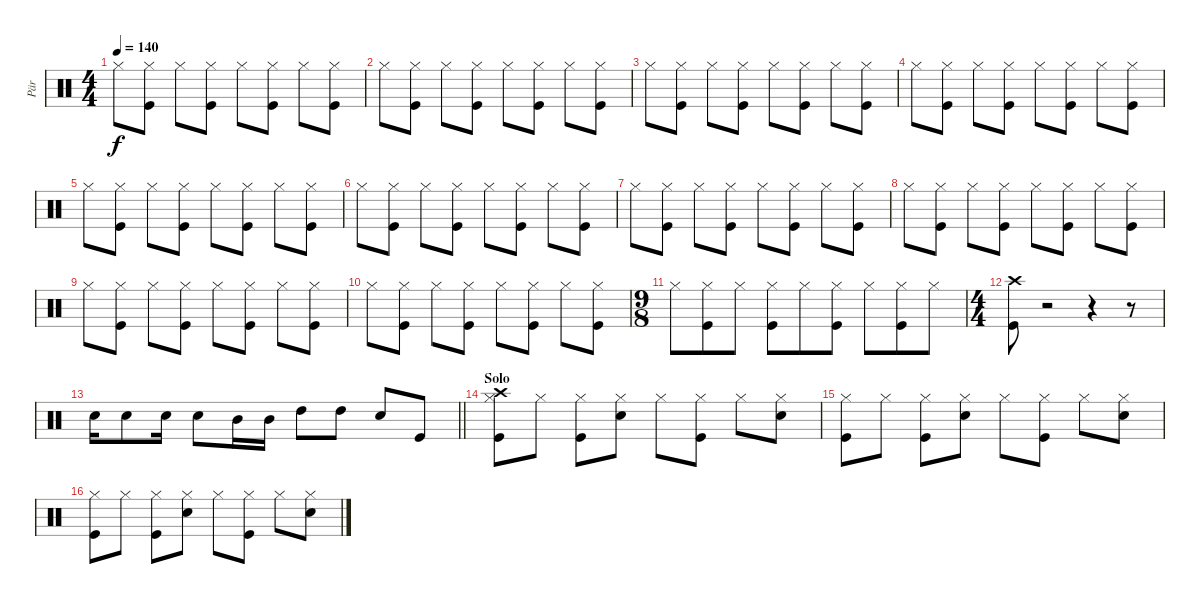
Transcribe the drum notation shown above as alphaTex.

\track ("Pär" "Pär") {instrument percussion}
\staff {score}
\articulation defaults
\ts (4 4)
\tempo 140
\clef neutral
\ks c "Hi-Hat (closed)".8{dy f}
("Hi-Hat (closed)" "Kick (hit)").8 "Hi-Hat (closed)".8 ("Hi-Hat (closed)" "Kick (hit)").8 "Hi-Hat (closed)".8 ("Hi-Hat (closed)" "Kick (hit)").8 "Hi-Hat (closed)".8 ("Hi-Hat (closed)" "Kick (hit)").8 |
"Hi-Hat (closed)".8 ("Hi-Hat (closed)" "Kick (hit)").8 "Hi-Hat (closed)".8 ("Hi-Hat (closed)" "Kick (hit)").8 "Hi-Hat (closed)".8 ("Hi-Hat (closed)" "Kick (hit)").8 "Hi-Hat (closed)".8 ("Hi-Hat (closed)" "Kick (hit)").8 |
"Hi-Hat (closed)".8 ("Hi-Hat (closed)" "Kick (hit)").8 "Hi-Hat (closed)".8 ("Hi-Hat (closed)" "Kick (hit)").8 "Hi-Hat (closed)".8 ("Hi-Hat (closed)" "Kick (hit)").8 "Hi-Hat (closed)".8 ("Hi-Hat (closed)" "Kick (hit)").8 |
"Hi-Hat (closed)".8 ("Hi-Hat (closed)" "Kick (hit)").8 "Hi-Hat (closed)".8 ("Hi-Hat (closed)" "Kick (hit)").8 "Hi-Hat (closed)".8 ("Hi-Hat (closed)" "Kick (hit)").8 "Hi-Hat (closed)".8 ("Hi-Hat (closed)" "Kick (hit)").8 |
"Hi-Hat (closed)".8 ("Hi-Hat (closed)" "Kick (hit)").8 "Hi-Hat (closed)".8 ("Hi-Hat (closed)" "Kick (hit)").8 "Hi-Hat (closed)".8 ("Hi-Hat (closed)" "Kick (hit)").8 "Hi-Hat (closed)".8 ("Hi-Hat (closed)" "Kick (hit)").8 |
"Hi-Hat (closed)".8 ("Hi-Hat (closed)" "Kick (hit)").8 "Hi-Hat (closed)".8 ("Hi-Hat (closed)" "Kick (hit)").8 "Hi-Hat (closed)".8 ("Hi-Hat (closed)" "Kick (hit)").8 "Hi-Hat (closed)".8 ("Hi-Hat (closed)" "Kick (hit)").8 |
"Hi-Hat (closed)".8 ("Hi-Hat (closed)" "Kick (hit)").8 "Hi-Hat (closed)".8 ("Hi-Hat (closed)" "Kick (hit)").8 "Hi-Hat (closed)".8 ("Hi-Hat (closed)" "Kick (hit)").8 "Hi-Hat (closed)".8 ("Hi-Hat (closed)" "Kick (hit)").8 |
"Hi-Hat (closed)".8 ("Hi-Hat (closed)" "Kick (hit)").8 "Hi-Hat (closed)".8 ("Hi-Hat (closed)" "Kick (hit)").8 "Hi-Hat (closed)".8 ("Hi-Hat (closed)" "Kick (hit)").8 "Hi-Hat (closed)".8 ("Hi-Hat (closed)" "Kick (hit)").8 |
"Hi-Hat (closed)".8 ("Hi-Hat (closed)" "Kick (hit)").8 "Hi-Hat (closed)".8 ("Hi-Hat (closed)" "Kick (hit)").8 "Hi-Hat (closed)".8 ("Hi-Hat (closed)" "Kick (hit)").8 "Hi-Hat (closed)".8 ("Hi-Hat (closed)" "Kick (hit)").8 |
"Hi-Hat (closed)".8 ("Hi-Hat (closed)" "Kick (hit)").8 "Hi-Hat (closed)".8 ("Hi-Hat (closed)" "Kick (hit)").8 "Hi-Hat (closed)".8 ("Hi-Hat (closed)" "Kick (hit)").8 "Hi-Hat (closed)".8 ("Hi-Hat (closed)" "Kick (hit)").8 |
\ts (9 8)
"Hi-Hat (closed)".8 ("Hi-Hat (closed)" "Kick (hit)").8 "Hi-Hat (closed)".8 ("Hi-Hat (closed)" "Kick (hit)").8 "Hi-Hat (closed)".8 ("Hi-Hat (closed)" "Kick (hit)").8 "Hi-Hat (closed)".8 ("Hi-Hat (closed)" "Kick (hit)").8 "Hi-Hat (closed)".8 |
\ts (4 4)
("Crash high (hit)" "Kick (hit)").8 r.2 r.4 r.8 |
\barLineRight lightlight "Snare (hit) 2".16 "Snare (hit) 2".8 "Snare (hit) 2".16 "Snare (hit) 2".8 "Mid Tom (hit)".16 "Mid Tom (hit)".16 "High Tom (hit)".8 "High Tom (hit)".8 "Snare (hit) 2".8 "Kick (hit)".8
|
\section ("" "Solo")
("Hi-Hat (closed)" "Crash high (hit)" "Kick (hit)").8 "Hi-Hat (closed)".8 ("Hi-Hat (closed)" "Kick (hit)").8 ("Hi-Hat (closed)" "Snare (hit) 2").8 "Hi-Hat (closed)".8 ("Hi-Hat (closed)" "Kick (hit)").8 "Hi-Hat (closed)".8 ("Hi-Hat (closed)" "Snare (hit) 2").8 |
("Hi-Hat (closed)" "Kick (hit)").8 "Hi-Hat (closed)".8 ("Hi-Hat (closed)" "Kick (hit)").8 ("Hi-Hat (closed)" "Snare (hit) 2").8 "Hi-Hat (closed)".8 ("Hi-Hat (closed)" "Kick (hit)").8 "Hi-Hat (closed)".8 ("Hi-Hat (closed)" "Snare (hit) 2").8 |
("Hi-Hat (closed)" "Kick (hit)").8 "Hi-Hat (closed)".8 ("Hi-Hat (closed)" "Kick (hit)").8 ("Hi-Hat (closed)" "Snare (hit) 2").8 "Hi-Hat (closed)".8 ("Hi-Hat (closed)" "Kick (hit)").8 "Hi-Hat (closed)".8 ("Hi-Hat (closed)" "Snare (hit) 2").8
